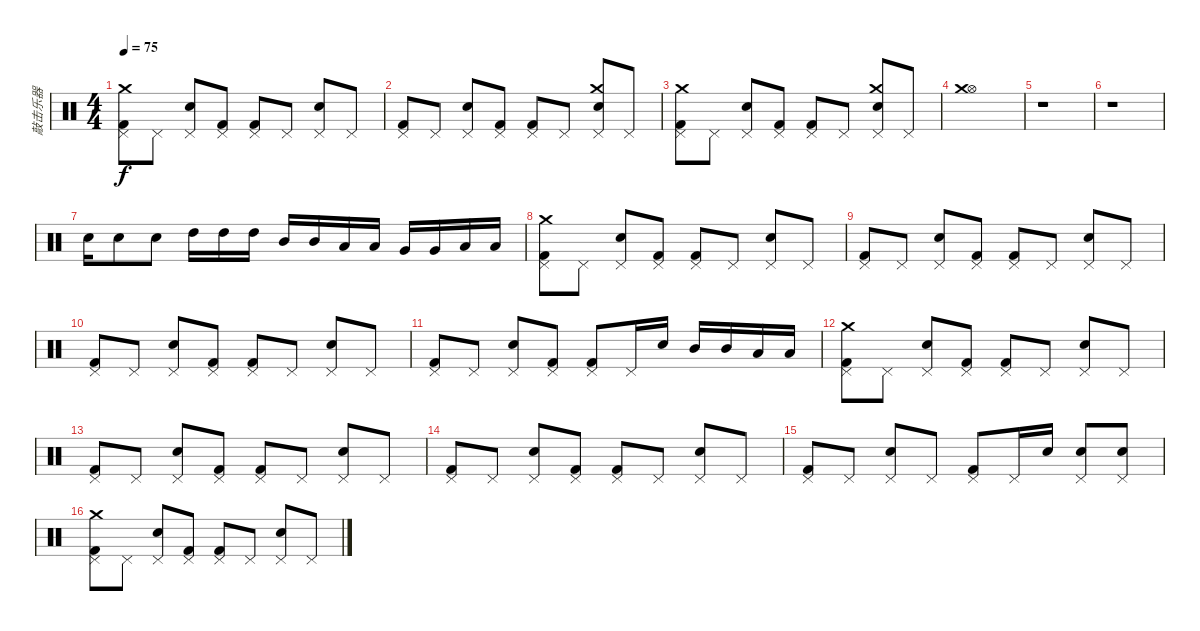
\track ("敲击乐器" "敲击乐器") {instrument percussion}
\staff {score}
\articulation defaults
\ts (4 4)
\tempo 75
\clef neutral
\ks c
("Pedal Hi-Hat (hit)" "Kick (hit) 2" "Crash medium (hit)").8{dy f} "Pedal Hi-Hat (hit)".8 ("Pedal Hi-Hat (hit)" "Electric Snare (hit)").8 ("Pedal Hi-Hat (hit)" "Kick (hit) 2").8 ("Pedal Hi-Hat (hit)" "Kick (hit) 2").8 "Pedal Hi-Hat (hit)".8 ("Pedal Hi-Hat (hit)" "Electric Snare (hit)").8 "Pedal Hi-Hat (hit)".8 |
("Pedal Hi-Hat (hit)" "Kick (hit) 2").8 "Pedal Hi-Hat (hit)".8 ("Pedal Hi-Hat (hit)" "Electric Snare (hit)").8 ("Pedal Hi-Hat (hit)" "Kick (hit) 2").8 ("Pedal Hi-Hat (hit)" "Kick (hit) 2").8 "Pedal Hi-Hat (hit)".8 ("Pedal Hi-Hat (hit)" "Electric Snare (hit)" "Crash medium (hit)").8 "Pedal Hi-Hat (hit)".8 |
("Pedal Hi-Hat (hit)" "Kick (hit) 2" "Crash medium (hit)").8 "Pedal Hi-Hat (hit)".8 ("Pedal Hi-Hat (hit)" "Electric Snare (hit)").8 ("Pedal Hi-Hat (hit)" "Kick (hit) 2").8 ("Pedal Hi-Hat (hit)" "Kick (hit) 2").8 "Pedal Hi-Hat (hit)".8 ("Pedal Hi-Hat (hit)" "Electric Snare (hit)" "Crash medium (hit)").8 "Pedal Hi-Hat (hit)".8 |
("Hi-Hat (open)" "Crash medium (hit)").1 |
r.1 |
r.1 |
"Electric Snare (hit)".16 "Electric Snare (hit)".8 "Electric Snare (hit)".8 "High Tom (hit)".16 "High Tom (hit)".16 "High Tom (hit)".16 "Mid Tom (hit)".16 "Mid Tom (hit)".16 "Low Tom (hit)".16 "Low Tom (hit)".16 "Very Low Tom (hit)".16 "Very Low Tom (hit)".16 "Low Floor Tom (hit)".16 "Low Floor Tom (hit)".16 |
("Pedal Hi-Hat (hit)" "Kick (hit) 2" "Crash medium (hit)").8 "Pedal Hi-Hat (hit)".8 ("Pedal Hi-Hat (hit)" "Electric Snare (hit)").8 ("Pedal Hi-Hat (hit)" "Kick (hit) 2").8 ("Pedal Hi-Hat (hit)" "Kick (hit) 2").8 "Pedal Hi-Hat (hit)".8 ("Pedal Hi-Hat (hit)" "Electric Snare (hit)").8 "Pedal Hi-Hat (hit)".8 |
("Pedal Hi-Hat (hit)" "Kick (hit) 2").8 "Pedal Hi-Hat (hit)".8 ("Pedal Hi-Hat (hit)" "Electric Snare (hit)").8 ("Pedal Hi-Hat (hit)" "Kick (hit) 2").8 ("Pedal Hi-Hat (hit)" "Kick (hit) 2").8 "Pedal Hi-Hat (hit)".8 ("Pedal Hi-Hat (hit)" "Electric Snare (hit)").8 "Pedal Hi-Hat (hit)".8 |
("Pedal Hi-Hat (hit)" "Kick (hit) 2").8 "Pedal Hi-Hat (hit)".8 ("Pedal Hi-Hat (hit)" "Electric Snare (hit)").8 ("Pedal Hi-Hat (hit)" "Kick (hit) 2").8 ("Pedal Hi-Hat (hit)" "Kick (hit) 2").8 "Pedal Hi-Hat (hit)".8 ("Pedal Hi-Hat (hit)" "Electric Snare (hit)").8 "Pedal Hi-Hat (hit)".8 |
("Pedal Hi-Hat (hit)" "Kick (hit) 2").8 "Pedal Hi-Hat (hit)".8 ("Pedal Hi-Hat (hit)" "Electric Snare (hit)").8 ("Pedal Hi-Hat (hit)" "Kick (hit) 2").8 ("Pedal Hi-Hat (hit)" "Kick (hit) 2").8 "Pedal Hi-Hat (hit)".16 "Electric Snare (hit)".16 "Mid Tom (hit)".16 "Mid Tom (hit)".16 "Low Tom (hit)".16 "Low Tom (hit)".16 |
("Pedal Hi-Hat (hit)" "Kick (hit) 2" "Crash medium (hit)").8 "Pedal Hi-Hat (hit)".8 ("Pedal Hi-Hat (hit)" "Electric Snare (hit)").8 ("Pedal Hi-Hat (hit)" "Kick (hit) 2").8 ("Pedal Hi-Hat (hit)" "Kick (hit) 2").8 "Pedal Hi-Hat (hit)".8 ("Pedal Hi-Hat (hit)" "Electric Snare (hit)").8 "Pedal Hi-Hat (hit)".8 |
("Pedal Hi-Hat (hit)" "Kick (hit) 2").8 "Pedal Hi-Hat (hit)".8 ("Pedal Hi-Hat (hit)" "Electric Snare (hit)").8 ("Pedal Hi-Hat (hit)" "Kick (hit) 2").8 ("Pedal Hi-Hat (hit)" "Kick (hit) 2").8 "Pedal Hi-Hat (hit)".8 ("Pedal Hi-Hat (hit)" "Electric Snare (hit)").8 "Pedal Hi-Hat (hit)".8 |
("Pedal Hi-Hat (hit)" "Kick (hit) 2").8 "Pedal Hi-Hat (hit)".8 ("Pedal Hi-Hat (hit)" "Electric Snare (hit)").8 ("Pedal Hi-Hat (hit)" "Kick (hit) 2").8 ("Pedal Hi-Hat (hit)" "Kick (hit) 2").8 "Pedal Hi-Hat (hit)".8 ("Pedal Hi-Hat (hit)" "Electric Snare (hit)").8 "Pedal Hi-Hat (hit)".8 |
("Pedal Hi-Hat (hit)" "Kick (hit) 2").8 "Pedal Hi-Hat (hit)".8 ("Pedal Hi-Hat (hit)" "Electric Snare (hit)").8 "Pedal Hi-Hat (hit)".8 ("Pedal Hi-Hat (hit)" "Kick (hit) 2").8 "Pedal Hi-Hat (hit)".16 "Electric Snare (hit)".16 ("Pedal Hi-Hat (hit)" "Electric Snare (hit)").8 ("Pedal Hi-Hat (hit)" "Electric Snare (hit)").8 |
("Pedal Hi-Hat (hit)" "Kick (hit) 2" "Crash medium (hit)").8 "Pedal Hi-Hat (hit)".8 ("Pedal Hi-Hat (hit)" "Electric Snare (hit)").8 ("Pedal Hi-Hat (hit)" "Kick (hit) 2").8 ("Pedal Hi-Hat (hit)" "Kick (hit) 2").8 "Pedal Hi-Hat (hit)".8 ("Pedal Hi-Hat (hit)" "Electric Snare (hit)").8 "Pedal Hi-Hat (hit)".8
